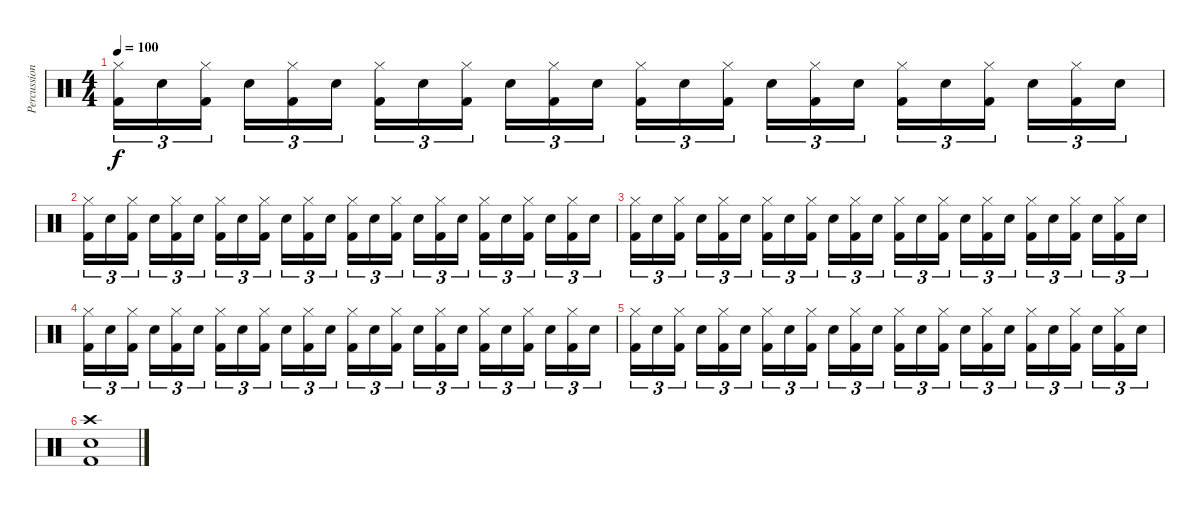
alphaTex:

\track ("Percussion" "Percussion") {instrument percussion}
\staff {score}
\articulation defaults
\ts (4 4)
\tempo 100
\clef neutral
\ks c
("Hi-Hat (closed)" "Kick (hit) 2").16{tu (3 2) dy f} "Snare (hit) 2".16{tu (3 2)} ("Hi-Hat (closed)" "Kick (hit) 2").16{tu (3 2) beam splitsecondary} "Snare (hit) 2".16{tu (3 2)} ("Hi-Hat (closed)" "Kick (hit) 2").16{tu (3 2)} "Snare (hit) 2".16{tu (3 2)} ("Hi-Hat (closed)" "Kick (hit) 2").16{tu (3 2)} "Snare (hit) 2".16{tu (3 2)} ("Hi-Hat (closed)" "Kick (hit) 2").16{tu (3 2) beam splitsecondary} "Snare (hit) 2".16{tu (3 2)} ("Hi-Hat (closed)" "Kick (hit) 2").16{tu (3 2)} "Snare (hit) 2".16{tu (3 2)} ("Hi-Hat (closed)" "Kick (hit) 2").16{tu (3 2)} "Snare (hit) 2".16{tu (3 2)} ("Hi-Hat (closed)" "Kick (hit) 2").16{tu (3 2) beam splitsecondary} "Snare (hit) 2".16{tu (3 2)} ("Hi-Hat (closed)" "Kick (hit) 2").16{tu (3 2)} "Snare (hit) 2".16{tu (3 2)} ("Hi-Hat (closed)" "Kick (hit) 2").16{tu (3 2)} "Snare (hit) 2".16{tu (3 2)} ("Hi-Hat (closed)" "Kick (hit) 2").16{tu (3 2) beam splitsecondary} "Snare (hit) 2".16{tu (3 2)} ("Hi-Hat (closed)" "Kick (hit) 2").16{tu (3 2)} "Snare (hit) 2".16{tu (3 2)} |
("Hi-Hat (closed)" "Kick (hit) 2").16{tu (3 2)} "Snare (hit) 2".16{tu (3 2)} ("Hi-Hat (closed)" "Kick (hit) 2").16{tu (3 2) beam splitsecondary} "Snare (hit) 2".16{tu (3 2)} ("Hi-Hat (closed)" "Kick (hit) 2").16{tu (3 2)} "Snare (hit) 2".16{tu (3 2)} ("Hi-Hat (closed)" "Kick (hit) 2").16{tu (3 2)} "Snare (hit) 2".16{tu (3 2)} ("Hi-Hat (closed)" "Kick (hit) 2").16{tu (3 2) beam splitsecondary} "Snare (hit) 2".16{tu (3 2)} ("Hi-Hat (closed)" "Kick (hit) 2").16{tu (3 2)} "Snare (hit) 2".16{tu (3 2)} ("Hi-Hat (closed)" "Kick (hit) 2").16{tu (3 2)} "Snare (hit) 2".16{tu (3 2)} ("Hi-Hat (closed)" "Kick (hit) 2").16{tu (3 2) beam splitsecondary} "Snare (hit) 2".16{tu (3 2)} ("Hi-Hat (closed)" "Kick (hit) 2").16{tu (3 2)} "Snare (hit) 2".16{tu (3 2)} ("Hi-Hat (closed)" "Kick (hit) 2").16{tu (3 2)} "Snare (hit) 2".16{tu (3 2)} ("Hi-Hat (closed)" "Kick (hit) 2").16{tu (3 2) beam splitsecondary} "Snare (hit) 2".16{tu (3 2)} ("Hi-Hat (closed)" "Kick (hit) 2").16{tu (3 2)} "Snare (hit) 2".16{tu (3 2)} |
("Hi-Hat (closed)" "Kick (hit) 2").16{tu (3 2)} "Snare (hit) 2".16{tu (3 2)} ("Hi-Hat (closed)" "Kick (hit) 2").16{tu (3 2) beam splitsecondary} "Snare (hit) 2".16{tu (3 2)} ("Hi-Hat (closed)" "Kick (hit) 2").16{tu (3 2)} "Snare (hit) 2".16{tu (3 2)} ("Hi-Hat (closed)" "Kick (hit) 2").16{tu (3 2)} "Snare (hit) 2".16{tu (3 2)} ("Hi-Hat (closed)" "Kick (hit) 2").16{tu (3 2) beam splitsecondary} "Snare (hit) 2".16{tu (3 2)} ("Hi-Hat (closed)" "Kick (hit) 2").16{tu (3 2)} "Snare (hit) 2".16{tu (3 2)} ("Hi-Hat (closed)" "Kick (hit) 2").16{tu (3 2)} "Snare (hit) 2".16{tu (3 2)} ("Hi-Hat (closed)" "Kick (hit) 2").16{tu (3 2) beam splitsecondary} "Snare (hit) 2".16{tu (3 2)} ("Hi-Hat (closed)" "Kick (hit) 2").16{tu (3 2)} "Snare (hit) 2".16{tu (3 2)} ("Hi-Hat (closed)" "Kick (hit) 2").16{tu (3 2)} "Snare (hit) 2".16{tu (3 2)} ("Hi-Hat (closed)" "Kick (hit) 2").16{tu (3 2) beam splitsecondary} "Snare (hit) 2".16{tu (3 2)} ("Hi-Hat (closed)" "Kick (hit) 2").16{tu (3 2)} "Snare (hit) 2".16{tu (3 2)} |
("Hi-Hat (closed)" "Kick (hit) 2").16{tu (3 2)} "Snare (hit) 2".16{tu (3 2)} ("Hi-Hat (closed)" "Kick (hit) 2").16{tu (3 2) beam splitsecondary} "Snare (hit) 2".16{tu (3 2)} ("Hi-Hat (closed)" "Kick (hit) 2").16{tu (3 2)} "Snare (hit) 2".16{tu (3 2)} ("Hi-Hat (closed)" "Kick (hit) 2").16{tu (3 2)} "Snare (hit) 2".16{tu (3 2)} ("Hi-Hat (closed)" "Kick (hit) 2").16{tu (3 2) beam splitsecondary} "Snare (hit) 2".16{tu (3 2)} ("Hi-Hat (closed)" "Kick (hit) 2").16{tu (3 2)} "Snare (hit) 2".16{tu (3 2)} ("Hi-Hat (closed)" "Kick (hit) 2").16{tu (3 2)} "Snare (hit) 2".16{tu (3 2)} ("Hi-Hat (closed)" "Kick (hit) 2").16{tu (3 2) beam splitsecondary} "Snare (hit) 2".16{tu (3 2)} ("Hi-Hat (closed)" "Kick (hit) 2").16{tu (3 2)} "Snare (hit) 2".16{tu (3 2)} ("Hi-Hat (closed)" "Kick (hit) 2").16{tu (3 2)} "Snare (hit) 2".16{tu (3 2)} ("Hi-Hat (closed)" "Kick (hit) 2").16{tu (3 2) beam splitsecondary} "Snare (hit) 2".16{tu (3 2)} ("Hi-Hat (closed)" "Kick (hit) 2").16{tu (3 2)} "Snare (hit) 2".16{tu (3 2)} |
("Hi-Hat (closed)" "Kick (hit) 2").16{tu (3 2)} "Snare (hit) 2".16{tu (3 2)} ("Hi-Hat (closed)" "Kick (hit) 2").16{tu (3 2) beam splitsecondary} "Snare (hit) 2".16{tu (3 2)} ("Hi-Hat (closed)" "Kick (hit) 2").16{tu (3 2)} "Snare (hit) 2".16{tu (3 2)} ("Hi-Hat (closed)" "Kick (hit) 2").16{tu (3 2)} "Snare (hit) 2".16{tu (3 2)} ("Hi-Hat (closed)" "Kick (hit) 2").16{tu (3 2) beam splitsecondary} "Snare (hit) 2".16{tu (3 2)} ("Hi-Hat (closed)" "Kick (hit) 2").16{tu (3 2)} "Snare (hit) 2".16{tu (3 2)} ("Hi-Hat (closed)" "Kick (hit) 2").16{tu (3 2)} "Snare (hit) 2".16{tu (3 2)} ("Hi-Hat (closed)" "Kick (hit) 2").16{tu (3 2) beam splitsecondary} "Snare (hit) 2".16{tu (3 2)} ("Hi-Hat (closed)" "Kick (hit) 2").16{tu (3 2)} "Snare (hit) 2".16{tu (3 2)} ("Hi-Hat (closed)" "Kick (hit) 2").16{tu (3 2)} "Snare (hit) 2".16{tu (3 2)} ("Hi-Hat (closed)" "Kick (hit) 2").16{tu (3 2) beam splitsecondary} "Snare (hit) 2".16{tu (3 2)} ("Hi-Hat (closed)" "Kick (hit) 2").16{tu (3 2)} "Snare (hit) 2".16{tu (3 2)} |
("Crash high (hit)" "Snare (hit) 2" "Kick (hit) 2").1
